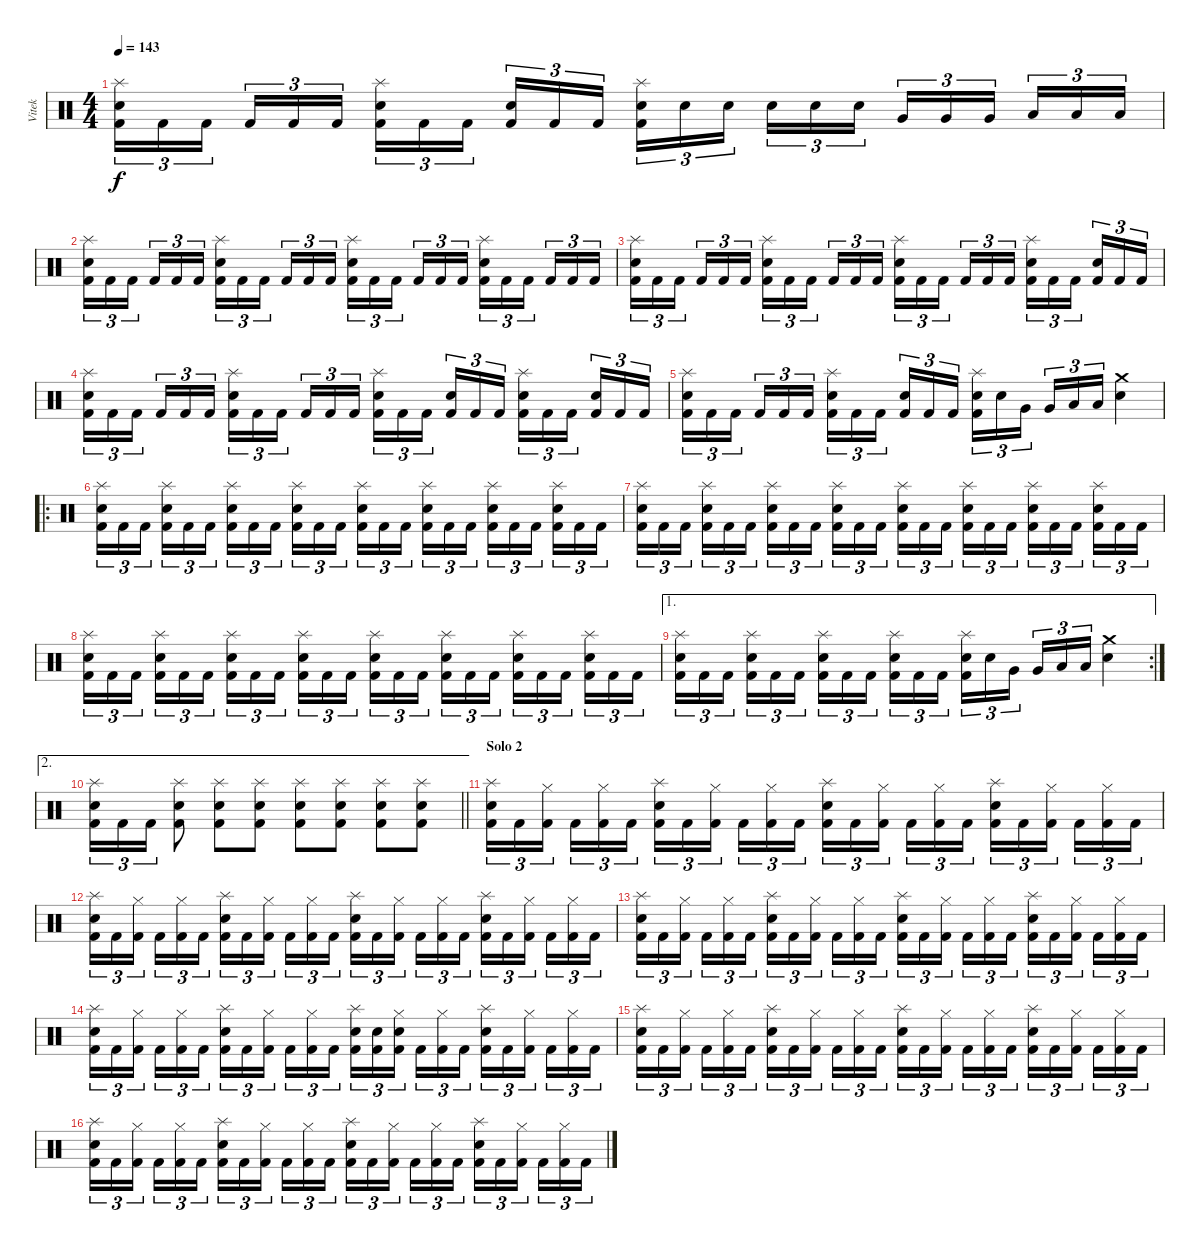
\track ("Vitek" "Vitek") {instrument percussion}
\staff {score}
\articulation defaults
\ts (4 4)
\tempo 143
\clef neutral
\ks c
("Splash (hit)" "Electric Snare (hit)" "Kick (hit) 2").16{tu (3 2) dy f} "Kick (hit) 2".16{tu (3 2)} "Kick (hit) 2".16{tu (3 2) beam splitsecondary} "Kick (hit) 2".16{tu (3 2)} "Kick (hit) 2".16{tu (3 2)} "Kick (hit) 2".16{tu (3 2)} ("Splash (hit)" "Electric Snare (hit)" "Kick (hit) 2").16{tu (3 2)} "Kick (hit) 2".16{tu (3 2)} "Kick (hit) 2".16{tu (3 2) beam splitsecondary} ("Electric Snare (hit)" "Kick (hit) 2").16{tu (3 2)} "Kick (hit) 2".16{tu (3 2)} "Kick (hit) 2".16{tu (3 2)} ("Splash (hit)" "Electric Snare (hit)" "Kick (hit) 2").16{tu (3 2)} "Electric Snare (hit)".16{tu (3 2)} "Electric Snare (hit)".16{tu (3 2) beam splitsecondary} "Electric Snare (hit)".16{tu (3 2)} "Electric Snare (hit)".16{tu (3 2)} "Electric Snare (hit)".16{tu (3 2)} "Very Low Tom (hit)".16{tu (3 2)} "Very Low Tom (hit)".16{tu (3 2)} "Very Low Tom (hit)".16{tu (3 2) beam splitsecondary} "Low Floor Tom (hit)".16{tu (3 2)} "Low Floor Tom (hit)".16{tu (3 2)} "Low Floor Tom (hit)".16{tu (3 2)} |
("Splash (hit)" "Electric Snare (hit)" "Kick (hit) 2").16{tu (3 2)} "Kick (hit) 2".16{tu (3 2)} "Kick (hit) 2".16{tu (3 2) beam splitsecondary} "Kick (hit) 2".16{tu (3 2)} "Kick (hit) 2".16{tu (3 2)} "Kick (hit) 2".16{tu (3 2)} ("Splash (hit)" "Electric Snare (hit)" "Kick (hit) 2").16{tu (3 2)} "Kick (hit) 2".16{tu (3 2)} "Kick (hit) 2".16{tu (3 2) beam splitsecondary} "Kick (hit) 2".16{tu (3 2)} "Kick (hit) 2".16{tu (3 2)} "Kick (hit) 2".16{tu (3 2)} ("Splash (hit)" "Electric Snare (hit)" "Kick (hit) 2").16{tu (3 2)} "Kick (hit) 2".16{tu (3 2)} "Kick (hit) 2".16{tu (3 2) beam splitsecondary} "Kick (hit) 2".16{tu (3 2)} "Kick (hit) 2".16{tu (3 2)} "Kick (hit) 2".16{tu (3 2)} ("Splash (hit)" "Electric Snare (hit)" "Kick (hit) 2").16{tu (3 2)} "Kick (hit) 2".16{tu (3 2)} "Kick (hit) 2".16{tu (3 2) beam splitsecondary} "Kick (hit) 2".16{tu (3 2)} "Kick (hit) 2".16{tu (3 2)} "Kick (hit) 2".16{tu (3 2)} |
("Splash (hit)" "Electric Snare (hit)" "Kick (hit) 2").16{tu (3 2)} "Kick (hit) 2".16{tu (3 2)} "Kick (hit) 2".16{tu (3 2) beam splitsecondary} "Kick (hit) 2".16{tu (3 2)} "Kick (hit) 2".16{tu (3 2)} "Kick (hit) 2".16{tu (3 2)} ("Splash (hit)" "Electric Snare (hit)" "Kick (hit) 2").16{tu (3 2)} "Kick (hit) 2".16{tu (3 2)} "Kick (hit) 2".16{tu (3 2) beam splitsecondary} "Kick (hit) 2".16{tu (3 2)} "Kick (hit) 2".16{tu (3 2)} "Kick (hit) 2".16{tu (3 2)} ("Splash (hit)" "Electric Snare (hit)" "Kick (hit) 2").16{tu (3 2)} "Kick (hit) 2".16{tu (3 2)} "Kick (hit) 2".16{tu (3 2) beam splitsecondary} "Kick (hit) 2".16{tu (3 2)} "Kick (hit) 2".16{tu (3 2)} "Kick (hit) 2".16{tu (3 2)} ("Splash (hit)" "Electric Snare (hit)" "Kick (hit) 2").16{tu (3 2)} "Kick (hit) 2".16{tu (3 2)} "Kick (hit) 2".16{tu (3 2) beam splitsecondary} ("Electric Snare (hit)" "Kick (hit) 2").16{tu (3 2)} "Kick (hit) 2".16{tu (3 2)} "Kick (hit) 2".16{tu (3 2)} |
("Splash (hit)" "Electric Snare (hit)" "Kick (hit) 2").16{tu (3 2)} "Kick (hit) 2".16{tu (3 2)} "Kick (hit) 2".16{tu (3 2) beam splitsecondary} "Kick (hit) 2".16{tu (3 2)} "Kick (hit) 2".16{tu (3 2)} "Kick (hit) 2".16{tu (3 2)} ("Splash (hit)" "Electric Snare (hit)" "Kick (hit) 2").16{tu (3 2)} "Kick (hit) 2".16{tu (3 2)} "Kick (hit) 2".16{tu (3 2) beam splitsecondary} "Kick (hit) 2".16{tu (3 2)} "Kick (hit) 2".16{tu (3 2)} "Kick (hit) 2".16{tu (3 2)} ("Splash (hit)" "Electric Snare (hit)" "Kick (hit) 2").16{tu (3 2)} "Kick (hit) 2".16{tu (3 2)} "Kick (hit) 2".16{tu (3 2) beam splitsecondary} ("Electric Snare (hit)" "Kick (hit) 2").16{tu (3 2)} "Kick (hit) 2".16{tu (3 2)} "Kick (hit) 2".16{tu (3 2)} ("Splash (hit)" "Electric Snare (hit)" "Kick (hit) 2").16{tu (3 2)} "Kick (hit) 2".16{tu (3 2)} "Kick (hit) 2".16{tu (3 2) beam splitsecondary} ("Electric Snare (hit)" "Kick (hit) 2").16{tu (3 2)} "Kick (hit) 2".16{tu (3 2)} "Kick (hit) 2".16{tu (3 2)} |
("Splash (hit)" "Electric Snare (hit)" "Kick (hit) 2").16{tu (3 2)} "Kick (hit) 2".16{tu (3 2)} "Kick (hit) 2".16{tu (3 2) beam splitsecondary} "Kick (hit) 2".16{tu (3 2)} "Kick (hit) 2".16{tu (3 2)} "Kick (hit) 2".16{tu (3 2)} ("Splash (hit)" "Electric Snare (hit)" "Kick (hit) 2").16{tu (3 2)} "Kick (hit) 2".16{tu (3 2)} "Kick (hit) 2".16{tu (3 2) beam splitsecondary} ("Electric Snare (hit)" "Kick (hit) 2").16{tu (3 2)} "Kick (hit) 2".16{tu (3 2)} "Kick (hit) 2".16{tu (3 2)} ("Splash (hit)" "Electric Snare (hit)" "Kick (hit) 2").16{tu (3 2)} "Electric Snare (hit)".16{tu (3 2)} "Very Low Tom (hit)".16{tu (3 2) beam splitsecondary} "Very Low Tom (hit)".16{tu (3 2)} "Low Floor Tom (hit)".16{tu (3 2)} "Low Floor Tom (hit)".16{tu (3 2)} ("Crash medium (hit)" "Electric Snare (hit)").4 |
\ro
("Splash (hit)" "Electric Snare (hit)" "Kick (hit) 2").16{tu (3 2)} "Kick (hit) 2".16{tu (3 2)} "Kick (hit) 2".16{tu (3 2) beam splitsecondary} ("Splash (hit)" "Electric Snare (hit)" "Kick (hit) 2").16{tu (3 2)} "Kick (hit) 2".16{tu (3 2)} "Kick (hit) 2".16{tu (3 2)} ("Splash (hit)" "Electric Snare (hit)" "Kick (hit) 2").16{tu (3 2)} "Kick (hit) 2".16{tu (3 2)} "Kick (hit) 2".16{tu (3 2) beam splitsecondary} ("Splash (hit)" "Electric Snare (hit)" "Kick (hit) 2").16{tu (3 2)} "Kick (hit) 2".16{tu (3 2)} "Kick (hit) 2".16{tu (3 2)} ("Splash (hit)" "Electric Snare (hit)" "Kick (hit) 2").16{tu (3 2)} "Kick (hit) 2".16{tu (3 2)} "Kick (hit) 2".16{tu (3 2) beam splitsecondary} ("Splash (hit)" "Electric Snare (hit)" "Kick (hit) 2").16{tu (3 2)} "Kick (hit) 2".16{tu (3 2)} "Kick (hit) 2".16{tu (3 2)} ("Splash (hit)" "Electric Snare (hit)" "Kick (hit) 2").16{tu (3 2)} "Kick (hit) 2".16{tu (3 2)} "Kick (hit) 2".16{tu (3 2) beam splitsecondary} ("Splash (hit)" "Electric Snare (hit)" "Kick (hit) 2").16{tu (3 2)} "Kick (hit) 2".16{tu (3 2)} "Kick (hit) 2".16{tu (3 2)} |
("Splash (hit)" "Electric Snare (hit)" "Kick (hit) 2").16{tu (3 2)} "Kick (hit) 2".16{tu (3 2)} "Kick (hit) 2".16{tu (3 2) beam splitsecondary} ("Splash (hit)" "Electric Snare (hit)" "Kick (hit) 2").16{tu (3 2)} "Kick (hit) 2".16{tu (3 2)} "Kick (hit) 2".16{tu (3 2)} ("Splash (hit)" "Electric Snare (hit)" "Kick (hit) 2").16{tu (3 2)} "Kick (hit) 2".16{tu (3 2)} "Kick (hit) 2".16{tu (3 2) beam splitsecondary} ("Splash (hit)" "Electric Snare (hit)" "Kick (hit) 2").16{tu (3 2)} "Kick (hit) 2".16{tu (3 2)} "Kick (hit) 2".16{tu (3 2)} ("Splash (hit)" "Electric Snare (hit)" "Kick (hit) 2").16{tu (3 2)} "Kick (hit) 2".16{tu (3 2)} "Kick (hit) 2".16{tu (3 2) beam splitsecondary} ("Splash (hit)" "Electric Snare (hit)" "Kick (hit) 2").16{tu (3 2)} "Kick (hit) 2".16{tu (3 2)} "Kick (hit) 2".16{tu (3 2)} ("Splash (hit)" "Electric Snare (hit)" "Kick (hit) 2").16{tu (3 2)} "Kick (hit) 2".16{tu (3 2)} "Kick (hit) 2".16{tu (3 2) beam splitsecondary} ("Splash (hit)" "Electric Snare (hit)" "Kick (hit) 2").16{tu (3 2)} "Kick (hit) 2".16{tu (3 2)} "Kick (hit) 2".16{tu (3 2)} |
("Splash (hit)" "Electric Snare (hit)" "Kick (hit) 2").16{tu (3 2)} "Kick (hit) 2".16{tu (3 2)} "Kick (hit) 2".16{tu (3 2) beam splitsecondary} ("Splash (hit)" "Electric Snare (hit)" "Kick (hit) 2").16{tu (3 2)} "Kick (hit) 2".16{tu (3 2)} "Kick (hit) 2".16{tu (3 2)} ("Splash (hit)" "Electric Snare (hit)" "Kick (hit) 2").16{tu (3 2)} "Kick (hit) 2".16{tu (3 2)} "Kick (hit) 2".16{tu (3 2) beam splitsecondary} ("Splash (hit)" "Electric Snare (hit)" "Kick (hit) 2").16{tu (3 2)} "Kick (hit) 2".16{tu (3 2)} "Kick (hit) 2".16{tu (3 2)} ("Splash (hit)" "Electric Snare (hit)" "Kick (hit) 2").16{tu (3 2)} "Kick (hit) 2".16{tu (3 2)} "Kick (hit) 2".16{tu (3 2) beam splitsecondary} ("Splash (hit)" "Electric Snare (hit)" "Kick (hit) 2").16{tu (3 2)} "Kick (hit) 2".16{tu (3 2)} "Kick (hit) 2".16{tu (3 2)} ("Splash (hit)" "Electric Snare (hit)" "Kick (hit) 2").16{tu (3 2)} "Kick (hit) 2".16{tu (3 2)} "Kick (hit) 2".16{tu (3 2) beam splitsecondary} ("Splash (hit)" "Electric Snare (hit)" "Kick (hit) 2").16{tu (3 2)} "Kick (hit) 2".16{tu (3 2)} "Kick (hit) 2".16{tu (3 2)} |
\ae 1
\rc 2
("Splash (hit)" "Electric Snare (hit)" "Kick (hit) 2").16{tu (3 2)} "Kick (hit) 2".16{tu (3 2)} "Kick (hit) 2".16{tu (3 2) beam splitsecondary} ("Splash (hit)" "Electric Snare (hit)" "Kick (hit) 2").16{tu (3 2)} "Kick (hit) 2".16{tu (3 2)} "Kick (hit) 2".16{tu (3 2)} ("Splash (hit)" "Electric Snare (hit)" "Kick (hit) 2").16{tu (3 2)} "Kick (hit) 2".16{tu (3 2)} "Kick (hit) 2".16{tu (3 2) beam splitsecondary} ("Splash (hit)" "Electric Snare (hit)" "Kick (hit) 2").16{tu (3 2)} "Kick (hit) 2".16{tu (3 2)} "Kick (hit) 2".16{tu (3 2)} ("Splash (hit)" "Electric Snare (hit)" "Kick (hit) 2").16{tu (3 2)} "Electric Snare (hit)".16{tu (3 2)} "Very Low Tom (hit)".16{tu (3 2) beam splitsecondary} "Very Low Tom (hit)".16{tu (3 2)} "Low Floor Tom (hit)".16{tu (3 2)} "Low Floor Tom (hit)".16{tu (3 2)} ("Crash medium (hit)" "Electric Snare (hit)").4 |
\ae 2
\barLineRight lightlight
("Splash (hit)" "Electric Snare (hit)" "Kick (hit) 2").16{tu (3 2)} "Kick (hit) 2".16{tu (3 2)} "Kick (hit) 2".16{tu (3 2)} ("Splash (hit)" "Electric Snare (hit)" "Kick (hit) 2").8 ("Splash (hit)" "Electric Snare (hit)" "Kick (hit) 2").8 ("Splash (hit)" "Electric Snare (hit)" "Kick (hit) 2").8 ("Splash (hit)" "Electric Snare (hit)" "Kick (hit) 2").8 ("Splash (hit)" "Electric Snare (hit)" "Kick (hit) 2").8 ("Splash (hit)" "Electric Snare (hit)" "Kick (hit) 2").8 ("Splash (hit)" "Electric Snare (hit)" "Kick (hit) 2").8 |
\section ("" "Solo 2")
("Splash (hit)" "Electric Snare (hit)" "Kick (hit) 2").16{tu (3 2)} "Kick (hit) 2".16{tu (3 2)} ("Hi-Hat (closed)" "Kick (hit) 2").16{tu (3 2) beam splitsecondary} "Kick (hit) 2".16{tu (3 2)} ("Hi-Hat (closed)" "Kick (hit) 2").16{tu (3 2)} "Kick (hit) 2".16{tu (3 2)} ("Splash (hit)" "Electric Snare (hit)" "Kick (hit) 2").16{tu (3 2)} "Kick (hit) 2".16{tu (3 2)} ("Hi-Hat (closed)" "Kick (hit) 2").16{tu (3 2) beam splitsecondary} "Kick (hit) 2".16{tu (3 2)} ("Hi-Hat (closed)" "Kick (hit) 2").16{tu (3 2)} "Kick (hit) 2".16{tu (3 2)} ("Splash (hit)" "Electric Snare (hit)" "Kick (hit) 2").16{tu (3 2)} "Kick (hit) 2".16{tu (3 2)} ("Hi-Hat (closed)" "Kick (hit) 2").16{tu (3 2) beam splitsecondary} "Kick (hit) 2".16{tu (3 2)} ("Hi-Hat (closed)" "Kick (hit) 2").16{tu (3 2)} "Kick (hit) 2".16{tu (3 2)} ("Splash (hit)" "Electric Snare (hit)" "Kick (hit) 2").16{tu (3 2)} "Kick (hit) 2".16{tu (3 2)} ("Hi-Hat (closed)" "Kick (hit) 2").16{tu (3 2) beam splitsecondary} "Kick (hit) 2".16{tu (3 2)} ("Hi-Hat (closed)" "Kick (hit) 2").16{tu (3 2)} "Kick (hit) 2".16{tu (3 2)} |
("Splash (hit)" "Electric Snare (hit)" "Kick (hit) 2").16{tu (3 2)} "Kick (hit) 2".16{tu (3 2)} ("Hi-Hat (closed)" "Kick (hit) 2").16{tu (3 2) beam splitsecondary} "Kick (hit) 2".16{tu (3 2)} ("Hi-Hat (closed)" "Kick (hit) 2").16{tu (3 2)} "Kick (hit) 2".16{tu (3 2)} ("Splash (hit)" "Electric Snare (hit)" "Kick (hit) 2").16{tu (3 2)} "Kick (hit) 2".16{tu (3 2)} ("Hi-Hat (closed)" "Kick (hit) 2").16{tu (3 2) beam splitsecondary} "Kick (hit) 2".16{tu (3 2)} ("Hi-Hat (closed)" "Kick (hit) 2").16{tu (3 2)} "Kick (hit) 2".16{tu (3 2)} ("Splash (hit)" "Electric Snare (hit)" "Kick (hit) 2").16{tu (3 2)} "Kick (hit) 2".16{tu (3 2)} ("Hi-Hat (closed)" "Kick (hit) 2").16{tu (3 2) beam splitsecondary} "Kick (hit) 2".16{tu (3 2)} ("Hi-Hat (closed)" "Kick (hit) 2").16{tu (3 2)} "Kick (hit) 2".16{tu (3 2)} ("Splash (hit)" "Electric Snare (hit)" "Kick (hit) 2").16{tu (3 2)} "Kick (hit) 2".16{tu (3 2)} ("Hi-Hat (closed)" "Kick (hit) 2").16{tu (3 2) beam splitsecondary} "Kick (hit) 2".16{tu (3 2)} ("Hi-Hat (closed)" "Kick (hit) 2").16{tu (3 2)} "Kick (hit) 2".16{tu (3 2)} |
("Splash (hit)" "Electric Snare (hit)" "Kick (hit) 2").16{tu (3 2)} "Kick (hit) 2".16{tu (3 2)} ("Hi-Hat (closed)" "Kick (hit) 2").16{tu (3 2) beam splitsecondary} "Kick (hit) 2".16{tu (3 2)} ("Hi-Hat (closed)" "Kick (hit) 2").16{tu (3 2)} "Kick (hit) 2".16{tu (3 2)} ("Splash (hit)" "Electric Snare (hit)" "Kick (hit) 2").16{tu (3 2)} "Kick (hit) 2".16{tu (3 2)} ("Hi-Hat (closed)" "Kick (hit) 2").16{tu (3 2) beam splitsecondary} "Kick (hit) 2".16{tu (3 2)} ("Hi-Hat (closed)" "Kick (hit) 2").16{tu (3 2)} "Kick (hit) 2".16{tu (3 2)} ("Splash (hit)" "Electric Snare (hit)" "Kick (hit) 2").16{tu (3 2)} "Kick (hit) 2".16{tu (3 2)} ("Hi-Hat (closed)" "Kick (hit) 2").16{tu (3 2) beam splitsecondary} "Kick (hit) 2".16{tu (3 2)} ("Hi-Hat (closed)" "Kick (hit) 2").16{tu (3 2)} "Kick (hit) 2".16{tu (3 2)} ("Splash (hit)" "Electric Snare (hit)" "Kick (hit) 2").16{tu (3 2)} "Kick (hit) 2".16{tu (3 2)} ("Hi-Hat (closed)" "Kick (hit) 2").16{tu (3 2) beam splitsecondary} "Kick (hit) 2".16{tu (3 2)} ("Hi-Hat (closed)" "Kick (hit) 2").16{tu (3 2)} "Kick (hit) 2".16{tu (3 2)} |
("Splash (hit)" "Electric Snare (hit)" "Kick (hit) 2").16{tu (3 2)} "Kick (hit) 2".16{tu (3 2)} ("Hi-Hat (closed)" "Kick (hit) 2").16{tu (3 2) beam splitsecondary} "Kick (hit) 2".16{tu (3 2)} ("Hi-Hat (closed)" "Kick (hit) 2").16{tu (3 2)} "Kick (hit) 2".16{tu (3 2)} ("Splash (hit)" "Electric Snare (hit)" "Kick (hit) 2").16{tu (3 2)} "Kick (hit) 2".16{tu (3 2)} ("Hi-Hat (closed)" "Kick (hit) 2").16{tu (3 2) beam splitsecondary} "Kick (hit) 2".16{tu (3 2)} ("Hi-Hat (closed)" "Kick (hit) 2").16{tu (3 2)} "Kick (hit) 2".16{tu (3 2)} ("Splash (hit)" "Electric Snare (hit)" "Kick (hit) 2").16{tu (3 2)} ("Electric Snare (hit)" "Kick (hit) 2").16{tu (3 2)} ("Hi-Hat (closed)" "Electric Snare (hit)" "Kick (hit) 2").16{tu (3 2) beam splitsecondary} "Kick (hit) 2".16{tu (3 2)} ("Hi-Hat (closed)" "Kick (hit) 2").16{tu (3 2)} "Kick (hit) 2".16{tu (3 2)} ("Splash (hit)" "Electric Snare (hit)" "Kick (hit) 2").16{tu (3 2)} "Kick (hit) 2".16{tu (3 2)} ("Hi-Hat (closed)" "Kick (hit) 2").16{tu (3 2) beam splitsecondary} "Kick (hit) 2".16{tu (3 2)} ("Hi-Hat (closed)" "Kick (hit) 2").16{tu (3 2)} "Kick (hit) 2".16{tu (3 2)} |
("Splash (hit)" "Electric Snare (hit)" "Kick (hit) 2").16{tu (3 2)} "Kick (hit) 2".16{tu (3 2)} ("Hi-Hat (closed)" "Kick (hit) 2").16{tu (3 2) beam splitsecondary} "Kick (hit) 2".16{tu (3 2)} ("Hi-Hat (closed)" "Kick (hit) 2").16{tu (3 2)} "Kick (hit) 2".16{tu (3 2)} ("Splash (hit)" "Electric Snare (hit)" "Kick (hit) 2").16{tu (3 2)} "Kick (hit) 2".16{tu (3 2)} ("Hi-Hat (closed)" "Kick (hit) 2").16{tu (3 2) beam splitsecondary} "Kick (hit) 2".16{tu (3 2)} ("Hi-Hat (closed)" "Kick (hit) 2").16{tu (3 2)} "Kick (hit) 2".16{tu (3 2)} ("Splash (hit)" "Electric Snare (hit)" "Kick (hit) 2").16{tu (3 2)} "Kick (hit) 2".16{tu (3 2)} ("Hi-Hat (closed)" "Kick (hit) 2").16{tu (3 2) beam splitsecondary} "Kick (hit) 2".16{tu (3 2)} ("Hi-Hat (closed)" "Kick (hit) 2").16{tu (3 2)} "Kick (hit) 2".16{tu (3 2)} ("Splash (hit)" "Electric Snare (hit)" "Kick (hit) 2").16{tu (3 2)} "Kick (hit) 2".16{tu (3 2)} ("Hi-Hat (closed)" "Kick (hit) 2").16{tu (3 2) beam splitsecondary} "Kick (hit) 2".16{tu (3 2)} ("Hi-Hat (closed)" "Kick (hit) 2").16{tu (3 2)} "Kick (hit) 2".16{tu (3 2)} |
("Splash (hit)" "Electric Snare (hit)" "Kick (hit) 2").16{tu (3 2)} "Kick (hit) 2".16{tu (3 2)} ("Hi-Hat (closed)" "Kick (hit) 2").16{tu (3 2) beam splitsecondary} "Kick (hit) 2".16{tu (3 2)} ("Hi-Hat (closed)" "Kick (hit) 2").16{tu (3 2)} "Kick (hit) 2".16{tu (3 2)} ("Splash (hit)" "Electric Snare (hit)" "Kick (hit) 2").16{tu (3 2)} "Kick (hit) 2".16{tu (3 2)} ("Hi-Hat (closed)" "Kick (hit) 2").16{tu (3 2) beam splitsecondary} "Kick (hit) 2".16{tu (3 2)} ("Hi-Hat (closed)" "Kick (hit) 2").16{tu (3 2)} "Kick (hit) 2".16{tu (3 2)} ("Splash (hit)" "Electric Snare (hit)" "Kick (hit) 2").16{tu (3 2)} "Kick (hit) 2".16{tu (3 2)} ("Hi-Hat (closed)" "Kick (hit) 2").16{tu (3 2) beam splitsecondary} "Kick (hit) 2".16{tu (3 2)} ("Hi-Hat (closed)" "Kick (hit) 2").16{tu (3 2)} "Kick (hit) 2".16{tu (3 2)} ("Splash (hit)" "Electric Snare (hit)" "Kick (hit) 2").16{tu (3 2)} "Kick (hit) 2".16{tu (3 2)} ("Hi-Hat (closed)" "Kick (hit) 2").16{tu (3 2) beam splitsecondary} "Kick (hit) 2".16{tu (3 2)} ("Hi-Hat (closed)" "Kick (hit) 2").16{tu (3 2)} "Kick (hit) 2".16{tu (3 2)}
